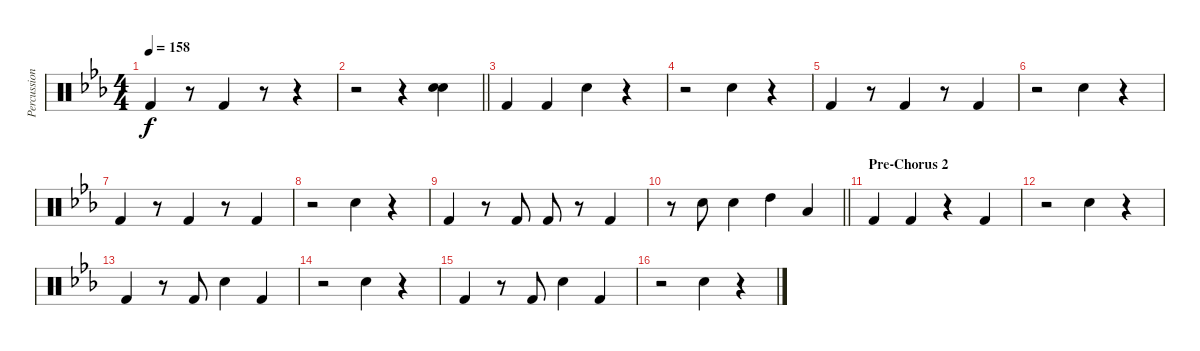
\track ("Percussion" "Percussion") {instrument percussion}
\staff {score}
\articulation defaults
\ts (4 4)
\tempo 158
\clef neutral
\ks eb "Kick (hit) 2".4{dy f}
r.8 "Kick (hit) 2".4 r.8 r.4 |
\barLineRight lightlight
r.2 r.4 ("Snare (hit) 2" "Snare (hit) 2").4 |
"Kick (hit) 2".4 "Kick (hit) 2".4 "Snare (hit) 2".4 r.4 |
r.2 "Snare (hit) 2".4 r.4 |
"Kick (hit) 2".4 r.8 "Kick (hit) 2".4 r.8 "Kick (hit) 2".4 |
r.2 "Snare (hit) 2".4 r.4 |
"Kick (hit) 2".4 r.8 "Kick (hit) 2".4 r.8 "Kick (hit) 2".4 |
r.2 "Snare (hit) 2".4 r.4 |
"Kick (hit) 2".4 r.8 "Kick (hit) 2".8 "Kick (hit) 2".8 r.8 "Kick (hit) 2".4 |
\barLineRight lightlight
r.8 "Snare (hit) 2".8 "Snare (hit) 2".4 "High Tom (hit)".4 "Low Tom (hit)".4 |
\section ("" "Pre-Chorus 2")
"Kick (hit) 2".4 "Kick (hit) 2".4 r.4 "Kick (hit) 2".4 |
r.2 "Snare (hit) 2".4 r.4 |
"Kick (hit) 2".4 r.8 "Kick (hit) 2".8 "Snare (hit) 2".4 "Kick (hit) 2".4 |
r.2 "Snare (hit) 2".4 r.4 |
"Kick (hit) 2".4 r.8 "Kick (hit) 2".8 "Snare (hit) 2".4 "Kick (hit) 2".4 |
r.2 "Snare (hit) 2".4 r.4
